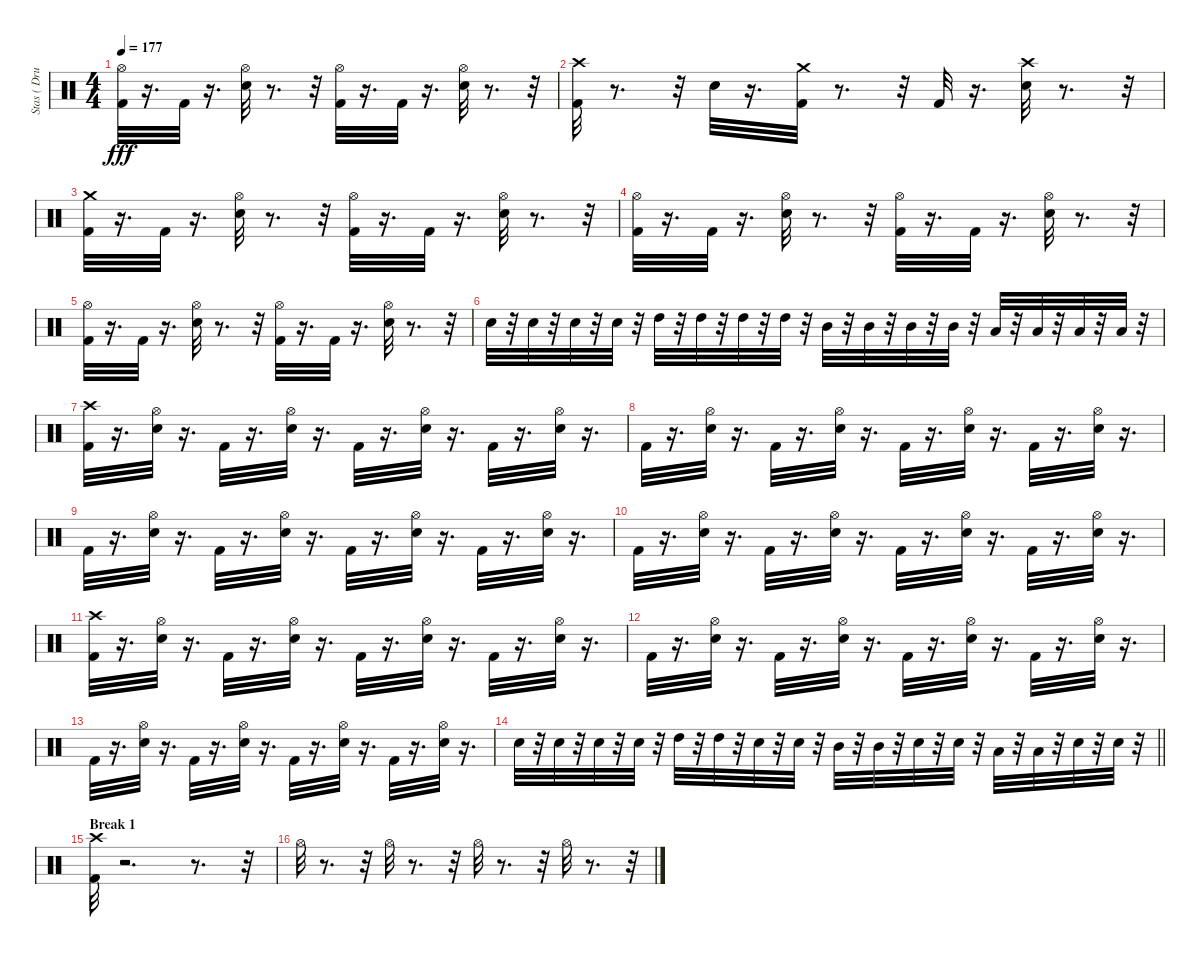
\track ("Stas ( Drums )" "Stas ( Dru") {instrument percussion}
\staff {score}
\articulation defaults
\ts (4 4)
\tempo 177
\clef neutral
\ks c
("Kick (hit) 2" "Hi-Hat (open)").32{dy fff} r.16{d} "Kick (hit) 2".32 r.16{d} ("Electric Snare (hit)" "Hi-Hat (open)").32 r.8{d} r.32 ("Kick (hit) 2" "Hi-Hat (open)").32 r.16{d} "Kick (hit) 2".32 r.16{d} ("Electric Snare (hit)" "Hi-Hat (open)").32 r.8{d} r.32 |
("Kick (hit) 2" "Crash high (hit)").32 r.8{d} r.32 "Electric Snare (hit)".32 r.16{d} ("Kick (hit) 2" "Crash medium (hit)").32 r.8{d} r.32 "Kick (hit) 2".32 r.16{d} ("Electric Snare (hit)" "Crash high (hit)").32 r.8{d} r.32 |
("Kick (hit) 2" "Crash medium (hit)").32 r.16{d} "Kick (hit) 2".32 r.16{d} ("Electric Snare (hit)" "Hi-Hat (open)").32 r.8{d} r.32 ("Kick (hit) 2" "Hi-Hat (open)").32 r.16{d} "Kick (hit) 2".32 r.16{d} ("Electric Snare (hit)" "Hi-Hat (open)").32 r.8{d} r.32 |
("Kick (hit) 2" "Hi-Hat (open)").32 r.16{d} "Kick (hit) 2".32 r.16{d} ("Electric Snare (hit)" "Hi-Hat (open)").32 r.8{d} r.32 ("Kick (hit) 2" "Hi-Hat (open)").32 r.16{d} "Kick (hit) 2".32 r.16{d} ("Electric Snare (hit)" "Hi-Hat (open)").32 r.8{d} r.32 |
("Kick (hit) 2" "Hi-Hat (open)").32 r.16{d} "Kick (hit) 2".32 r.16{d} ("Electric Snare (hit)" "Hi-Hat (open)").32 r.8{d} r.32 ("Kick (hit) 2" "Hi-Hat (open)").32 r.16{d} "Kick (hit) 2".32 r.16{d} ("Electric Snare (hit)" "Hi-Hat (open)").32 r.8{d} r.32 |
"Electric Snare (hit)".32 r.32 "Electric Snare (hit)".32 r.32 "Electric Snare (hit)".32 r.32 "Electric Snare (hit)".32 r.32 "High Tom (hit)".32 r.32 "High Tom (hit)".32 r.32 "High Tom (hit)".32 r.32 "High Tom (hit)".32 r.32 "Mid Tom (hit)".32 r.32 "Mid Tom (hit)".32 r.32 "Mid Tom (hit)".32 r.32 "Mid Tom (hit)".32 r.32 "Low Tom (hit)".32 r.32 "Low Tom (hit)".32 r.32 "Low Tom (hit)".32 r.32 "Low Tom (hit)".32 r.32 |
("Kick (hit) 2" "Crash high (hit)").32 r.16{d} ("Electric Snare (hit)" "Hi-Hat (open)").32 r.16{d} "Kick (hit) 2".32 r.16{d} ("Electric Snare (hit)" "Hi-Hat (open)").32 r.16{d} "Kick (hit) 2".32 r.16{d} ("Electric Snare (hit)" "Hi-Hat (open)").32 r.16{d} "Kick (hit) 2".32 r.16{d} ("Electric Snare (hit)" "Hi-Hat (open)").32 r.16{d} |
"Kick (hit) 2".32 r.16{d} ("Electric Snare (hit)" "Hi-Hat (open)").32 r.16{d} "Kick (hit) 2".32 r.16{d} ("Electric Snare (hit)" "Hi-Hat (open)").32 r.16{d} "Kick (hit) 2".32 r.16{d} ("Electric Snare (hit)" "Hi-Hat (open)").32 r.16{d} "Kick (hit) 2".32 r.16{d} ("Electric Snare (hit)" "Hi-Hat (open)").32 r.16{d} |
"Kick (hit) 2".32 r.16{d} ("Electric Snare (hit)" "Hi-Hat (open)").32 r.16{d} "Kick (hit) 2".32 r.16{d} ("Electric Snare (hit)" "Hi-Hat (open)").32 r.16{d} "Kick (hit) 2".32 r.16{d} ("Electric Snare (hit)" "Hi-Hat (open)").32 r.16{d} "Kick (hit) 2".32 r.16{d} ("Electric Snare (hit)" "Hi-Hat (open)").32 r.16{d} |
"Kick (hit) 2".32 r.16{d} ("Electric Snare (hit)" "Hi-Hat (open)").32 r.16{d} "Kick (hit) 2".32 r.16{d} ("Electric Snare (hit)" "Hi-Hat (open)").32 r.16{d} "Kick (hit) 2".32 r.16{d} ("Electric Snare (hit)" "Hi-Hat (open)").32 r.16{d} "Kick (hit) 2".32 r.16{d} ("Electric Snare (hit)" "Hi-Hat (open)").32 r.16{d} |
("Kick (hit) 2" "Crash high (hit)").32 r.16{d} ("Electric Snare (hit)" "Hi-Hat (open)").32 r.16{d} "Kick (hit) 2".32 r.16{d} ("Electric Snare (hit)" "Hi-Hat (open)").32 r.16{d} "Kick (hit) 2".32 r.16{d} ("Electric Snare (hit)" "Hi-Hat (open)").32 r.16{d} "Kick (hit) 2".32 r.16{d} ("Electric Snare (hit)" "Hi-Hat (open)").32 r.16{d} |
"Kick (hit) 2".32 r.16{d} ("Electric Snare (hit)" "Hi-Hat (open)").32 r.16{d} "Kick (hit) 2".32 r.16{d} ("Electric Snare (hit)" "Hi-Hat (open)").32 r.16{d} "Kick (hit) 2".32 r.16{d} ("Electric Snare (hit)" "Hi-Hat (open)").32 r.16{d} "Kick (hit) 2".32 r.16{d} ("Electric Snare (hit)" "Hi-Hat (open)").32 r.16{d} |
"Kick (hit) 2".32 r.16{d} ("Electric Snare (hit)" "Hi-Hat (open)").32 r.16{d} "Kick (hit) 2".32 r.16{d} ("Electric Snare (hit)" "Hi-Hat (open)").32 r.16{d} "Kick (hit) 2".32 r.16{d} ("Electric Snare (hit)" "Hi-Hat (open)").32 r.16{d} "Kick (hit) 2".32 r.16{d} ("Electric Snare (hit)" "Hi-Hat (open)").32 r.16{d} |
\barLineRight lightlight "Electric Snare (hit)".32
r.32 "Electric Snare (hit)".32 r.32 "Electric Snare (hit)".32 r.32 "Electric Snare (hit)".32 r.32 "High Tom (hit)".32 r.32 "High Tom (hit)".32 r.32 "Electric Snare (hit)".32 r.32 "Electric Snare (hit)".32 r.32 "Mid Tom (hit)".32 r.32 "Mid Tom (hit)".32 r.32 "Electric Snare (hit)".32 r.32 "Electric Snare (hit)".32 r.32 "Low Tom (hit)".32 r.32 "Low Tom (hit)".32 r.32 "Electric Snare (hit)".32 r.32 "Electric Snare (hit)".32 r.32 |
\section ("" "Break 1")
("Kick (hit) 2" "Crash high (hit)").32 r.2{d} r.8{d} r.32 |
"Hi-Hat (open)".32 r.8{d} r.32 "Hi-Hat (open)".32 r.8{d} r.32 "Hi-Hat (open)".32 r.8{d} r.32 "Hi-Hat (open)".32 r.8{d} r.32
